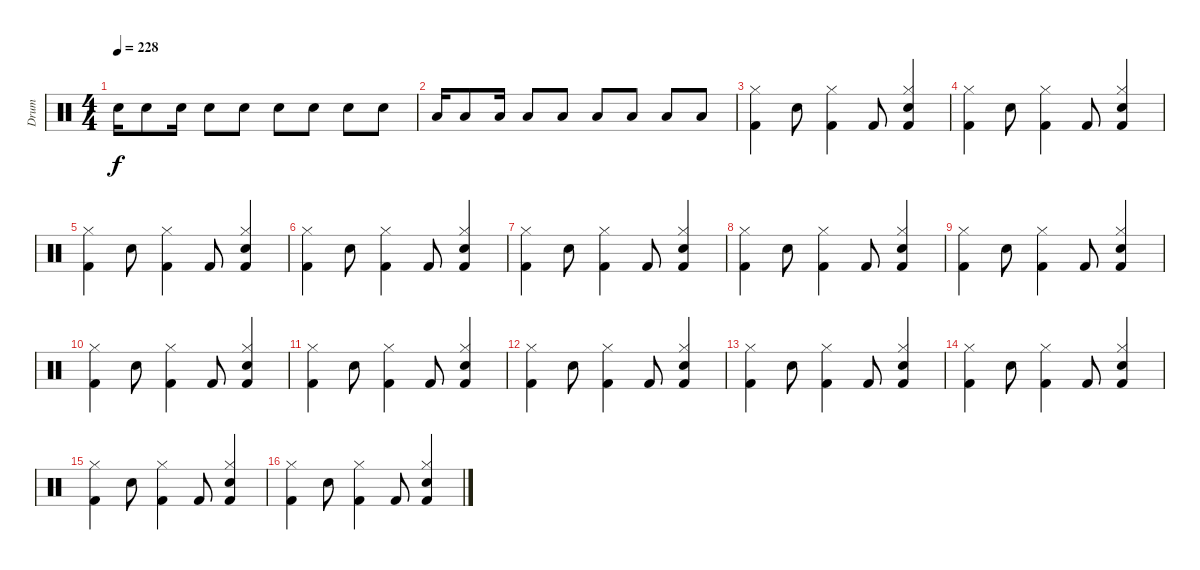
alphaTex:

\track ("Drum" "Drum") {instrument percussion}
\staff {score}
\articulation defaults
\ts (4 4)
\tempo 228
\clef neutral
\ks c "Snare (hit) 2".16{dy f} "Snare (hit) 2".8 "Snare (hit) 2".16 "Snare (hit) 2".8 "Snare (hit) 2".8 "Snare (hit) 2".8 "Snare (hit) 2".8 "Snare (hit) 2".8 "Snare (hit) 2".8
|
"Low Tom (hit)".16 "Low Tom (hit)".8 "Low Tom (hit)".16 "Low Tom (hit)".8 "Low Tom (hit)".8 "Low Tom (hit)".8 "Low Tom (hit)".8 "Low Tom (hit)".8 "Low Tom (hit)".8 |
("Hi-Hat (closed)" "Kick (hit) 2").4 "Snare (hit) 2".8 ("Hi-Hat (closed)" "Kick (hit) 2").4 "Kick (hit) 2".8 ("Hi-Hat (closed)" "Snare (hit) 2" "Kick (hit) 2").4 |
("Hi-Hat (closed)" "Kick (hit) 2").4 "Snare (hit) 2".8 ("Hi-Hat (closed)" "Kick (hit) 2").4 "Kick (hit) 2".8 ("Hi-Hat (closed)" "Snare (hit) 2" "Kick (hit) 2").4 |
("Hi-Hat (closed)" "Kick (hit) 2").4 "Snare (hit) 2".8 ("Hi-Hat (closed)" "Kick (hit) 2").4 "Kick (hit) 2".8 ("Hi-Hat (closed)" "Snare (hit) 2" "Kick (hit) 2").4 |
("Hi-Hat (closed)" "Kick (hit) 2").4 "Snare (hit) 2".8 ("Hi-Hat (closed)" "Kick (hit) 2").4 "Kick (hit) 2".8 ("Hi-Hat (closed)" "Snare (hit) 2" "Kick (hit) 2").4 |
("Hi-Hat (closed)" "Kick (hit) 2").4 "Snare (hit) 2".8 ("Hi-Hat (closed)" "Kick (hit) 2").4 "Kick (hit) 2".8 ("Hi-Hat (closed)" "Snare (hit) 2" "Kick (hit) 2").4 |
("Hi-Hat (closed)" "Kick (hit) 2").4 "Snare (hit) 2".8 ("Hi-Hat (closed)" "Kick (hit) 2").4 "Kick (hit) 2".8 ("Hi-Hat (closed)" "Snare (hit) 2" "Kick (hit) 2").4 |
("Hi-Hat (closed)" "Kick (hit) 2").4 "Snare (hit) 2".8 ("Hi-Hat (closed)" "Kick (hit) 2").4 "Kick (hit) 2".8 ("Hi-Hat (closed)" "Snare (hit) 2" "Kick (hit) 2").4 |
("Hi-Hat (closed)" "Kick (hit) 2").4 "Snare (hit) 2".8 ("Hi-Hat (closed)" "Kick (hit) 2").4 "Kick (hit) 2".8 ("Hi-Hat (closed)" "Snare (hit) 2" "Kick (hit) 2").4 |
("Hi-Hat (closed)" "Kick (hit) 2").4 "Snare (hit) 2".8 ("Hi-Hat (closed)" "Kick (hit) 2").4 "Kick (hit) 2".8 ("Hi-Hat (closed)" "Snare (hit) 2" "Kick (hit) 2").4 |
("Hi-Hat (closed)" "Kick (hit) 2").4 "Snare (hit) 2".8 ("Hi-Hat (closed)" "Kick (hit) 2").4 "Kick (hit) 2".8 ("Hi-Hat (closed)" "Snare (hit) 2" "Kick (hit) 2").4 |
("Hi-Hat (closed)" "Kick (hit) 2").4 "Snare (hit) 2".8 ("Hi-Hat (closed)" "Kick (hit) 2").4 "Kick (hit) 2".8 ("Hi-Hat (closed)" "Snare (hit) 2" "Kick (hit) 2").4 |
("Hi-Hat (closed)" "Kick (hit) 2").4 "Snare (hit) 2".8 ("Hi-Hat (closed)" "Kick (hit) 2").4 "Kick (hit) 2".8 ("Hi-Hat (closed)" "Snare (hit) 2" "Kick (hit) 2").4 |
("Hi-Hat (closed)" "Kick (hit) 2").4 "Snare (hit) 2".8 ("Hi-Hat (closed)" "Kick (hit) 2").4 "Kick (hit) 2".8 ("Hi-Hat (closed)" "Snare (hit) 2" "Kick (hit) 2").4 |
("Hi-Hat (closed)" "Kick (hit) 2").4 "Snare (hit) 2".8 ("Hi-Hat (closed)" "Kick (hit) 2").4 "Kick (hit) 2".8 ("Hi-Hat (closed)" "Snare (hit) 2" "Kick (hit) 2").4
